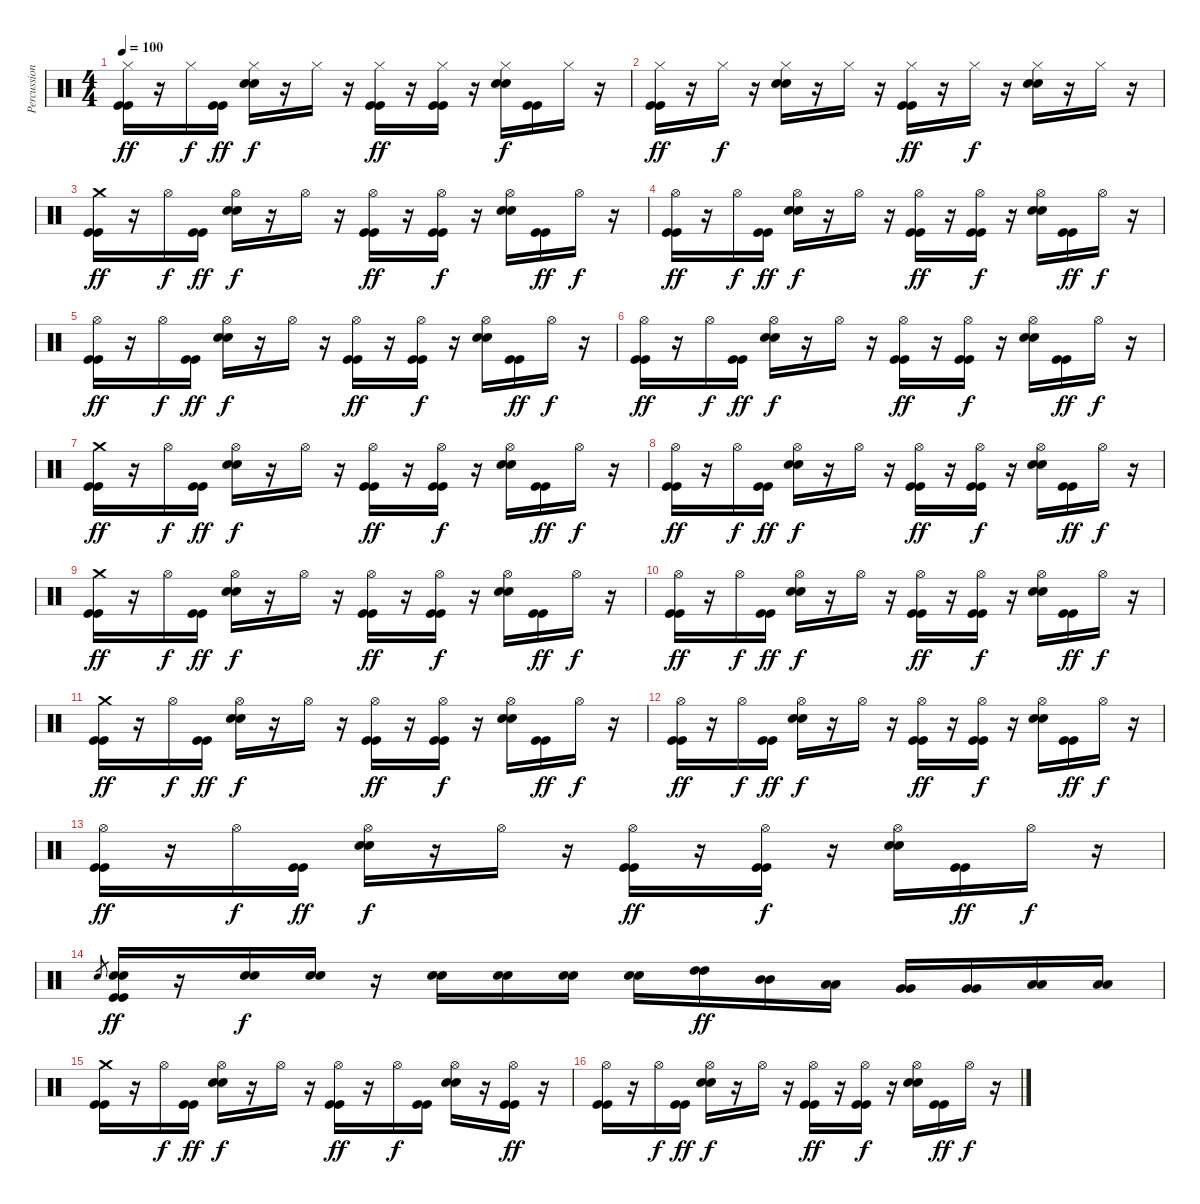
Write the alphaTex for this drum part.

\track ("Percussions" "Percussion") {instrument percussion}
\staff
\articulation defaults
\ts (4 4)
\tempo 100
\clef neutral
\ks c
("Hi-Hat (closed)" "Kick (hit)" "Kick (hit)").16{dy ff} r.16 "Hi-Hat (closed)".16{dy f} ("Kick (hit)" "Kick (hit)").16{dy ff} ("Hi-Hat (closed)" "Electric Snare (hit)" "Electric Snare (hit)").16{dy f} r.16 "Hi-Hat (closed)".16 r.16 ("Hi-Hat (closed)" "Kick (hit)" "Kick (hit)").16{dy ff} r.16 ("Hi-Hat (closed)" "Kick (hit)" "Kick (hit)").16 r.16 ("Hi-Hat (closed)" "Electric Snare (hit)" "Electric Snare (hit)").16{dy f} ("Kick (hit)" "Kick (hit)").16 "Hi-Hat (closed)".16 r.16 |
("Hi-Hat (closed)" "Kick (hit)" "Kick (hit)").16{dy ff} r.16 "Hi-Hat (closed)".16{dy f} r.16 ("Hi-Hat (closed)" "Electric Snare (hit)" "Electric Snare (hit)").16 r.16 "Hi-Hat (closed)".16 r.16 ("Hi-Hat (closed)" "Kick (hit)" "Kick (hit)").16{dy ff} r.16 "Hi-Hat (closed)".16{dy f} r.16 ("Hi-Hat (closed)" "Electric Snare (hit)" "Electric Snare (hit)").16 r.16 "Hi-Hat (closed)".16 r.16 |
("Crash medium (hit)" "Kick (hit)" "Kick (hit)").16{dy ff} r.16 "Hi-Hat (open)".16{dy f} ("Kick (hit)" "Kick (hit)").16{dy ff} ("Hi-Hat (open)" "Electric Snare (hit)" "Electric Snare (hit)").16{dy f} r.16 "Hi-Hat (open)".16 r.16 ("Hi-Hat (open)" "Kick (hit)" "Kick (hit)").16{dy ff} r.16 ("Hi-Hat (open)" "Kick (hit)" "Kick (hit)").16{dy f} r.16 ("Hi-Hat (open)" "Electric Snare (hit)" "Electric Snare (hit)").16 ("Kick (hit)" "Kick (hit)").16{dy ff} "Hi-Hat (open)".16{dy f} r.16 |
("Hi-Hat (open)" "Kick (hit)" "Kick (hit)").16{dy ff} r.16 "Hi-Hat (open)".16{dy f} ("Kick (hit)" "Kick (hit)").16{dy ff} ("Hi-Hat (open)" "Electric Snare (hit)" "Electric Snare (hit)").16{dy f} r.16 "Hi-Hat (open)".16 r.16 ("Hi-Hat (open)" "Kick (hit)" "Kick (hit)").16{dy ff} r.16 ("Hi-Hat (open)" "Kick (hit)" "Kick (hit)").16{dy f} r.16 ("Hi-Hat (open)" "Electric Snare (hit)" "Electric Snare (hit)").16 ("Kick (hit)" "Kick (hit)").16{dy ff} "Hi-Hat (open)".16{dy f} r.16 |
("Hi-Hat (open)" "Kick (hit)" "Kick (hit)").16{dy ff} r.16 "Hi-Hat (open)".16{dy f} ("Kick (hit)" "Kick (hit)").16{dy ff} ("Hi-Hat (open)" "Electric Snare (hit)" "Electric Snare (hit)").16{dy f} r.16 "Hi-Hat (open)".16 r.16 ("Hi-Hat (open)" "Kick (hit)" "Kick (hit)").16{dy ff} r.16 ("Hi-Hat (open)" "Kick (hit)" "Kick (hit)").16{dy f} r.16 ("Hi-Hat (open)" "Electric Snare (hit)" "Electric Snare (hit)").16 ("Kick (hit)" "Kick (hit)").16{dy ff} "Hi-Hat (open)".16{dy f} r.16 |
("Hi-Hat (open)" "Kick (hit)" "Kick (hit)").16{dy ff} r.16 "Hi-Hat (open)".16{dy f} ("Kick (hit)" "Kick (hit)").16{dy ff} ("Hi-Hat (open)" "Electric Snare (hit)" "Electric Snare (hit)").16{dy f} r.16 "Hi-Hat (open)".16 r.16 ("Hi-Hat (open)" "Kick (hit)" "Kick (hit)").16{dy ff} r.16 ("Hi-Hat (open)" "Kick (hit)" "Kick (hit)").16{dy f} r.16 ("Hi-Hat (open)" "Electric Snare (hit)" "Electric Snare (hit)").16 ("Kick (hit)" "Kick (hit)").16{dy ff} "Hi-Hat (open)".16{dy f} r.16 |
("Crash medium (hit)" "Kick (hit)" "Kick (hit)").16{dy ff} r.16 "Hi-Hat (open)".16{dy f} ("Kick (hit)" "Kick (hit)").16{dy ff} ("Hi-Hat (open)" "Electric Snare (hit)" "Electric Snare (hit)").16{dy f} r.16 "Hi-Hat (open)".16 r.16 ("Hi-Hat (open)" "Kick (hit)" "Kick (hit)").16{dy ff} r.16 ("Hi-Hat (open)" "Kick (hit)" "Kick (hit)").16{dy f} r.16 ("Hi-Hat (open)" "Electric Snare (hit)" "Electric Snare (hit)").16 ("Kick (hit)" "Kick (hit)").16{dy ff} "Hi-Hat (open)".16{dy f} r.16 |
("Hi-Hat (open)" "Kick (hit)" "Kick (hit)").16{dy ff} r.16 "Hi-Hat (open)".16{dy f} ("Kick (hit)" "Kick (hit)").16{dy ff} ("Hi-Hat (open)" "Electric Snare (hit)" "Electric Snare (hit)").16{dy f} r.16 "Hi-Hat (open)".16 r.16 ("Hi-Hat (open)" "Kick (hit)" "Kick (hit)").16{dy ff} r.16 ("Hi-Hat (open)" "Kick (hit)" "Kick (hit)").16{dy f} r.16 ("Hi-Hat (open)" "Electric Snare (hit)" "Electric Snare (hit)").16 ("Kick (hit)" "Kick (hit)").16{dy ff} "Hi-Hat (open)".16{dy f} r.16 |
("Crash medium (hit)" "Kick (hit)" "Kick (hit)").16{dy ff} r.16 "Hi-Hat (open)".16{dy f} ("Kick (hit)" "Kick (hit)").16{dy ff} ("Hi-Hat (open)" "Electric Snare (hit)" "Electric Snare (hit)").16{dy f} r.16 "Hi-Hat (open)".16 r.16 ("Hi-Hat (open)" "Kick (hit)" "Kick (hit)").16{dy ff} r.16 ("Hi-Hat (open)" "Kick (hit)" "Kick (hit)").16{dy f} r.16 ("Hi-Hat (open)" "Electric Snare (hit)" "Electric Snare (hit)").16 ("Kick (hit)" "Kick (hit)").16{dy ff} "Hi-Hat (open)".16{dy f} r.16 |
("Hi-Hat (open)" "Kick (hit)" "Kick (hit)").16{dy ff} r.16 "Hi-Hat (open)".16{dy f} ("Kick (hit)" "Kick (hit)").16{dy ff} ("Hi-Hat (open)" "Electric Snare (hit)" "Electric Snare (hit)").16{dy f} r.16 "Hi-Hat (open)".16 r.16 ("Hi-Hat (open)" "Kick (hit)" "Kick (hit)").16{dy ff} r.16 ("Hi-Hat (open)" "Kick (hit)" "Kick (hit)").16{dy f} r.16 ("Hi-Hat (open)" "Electric Snare (hit)" "Electric Snare (hit)").16 ("Kick (hit)" "Kick (hit)").16{dy ff} "Hi-Hat (open)".16{dy f} r.16 |
("Crash medium (hit)" "Kick (hit)" "Kick (hit)").16{dy ff} r.16 "Hi-Hat (open)".16{dy f} ("Kick (hit)" "Kick (hit)").16{dy ff} ("Hi-Hat (open)" "Electric Snare (hit)" "Electric Snare (hit)").16{dy f} r.16 "Hi-Hat (open)".16 r.16 ("Hi-Hat (open)" "Kick (hit)" "Kick (hit)").16{dy ff} r.16 ("Hi-Hat (open)" "Kick (hit)" "Kick (hit)").16{dy f} r.16 ("Hi-Hat (open)" "Electric Snare (hit)" "Electric Snare (hit)").16 ("Kick (hit)" "Kick (hit)").16{dy ff} "Hi-Hat (open)".16{dy f} r.16 |
("Hi-Hat (open)" "Kick (hit)" "Kick (hit)").16{dy ff} r.16 "Hi-Hat (open)".16{dy f} ("Kick (hit)" "Kick (hit)").16{dy ff} ("Hi-Hat (open)" "Electric Snare (hit)" "Electric Snare (hit)").16{dy f} r.16 "Hi-Hat (open)".16 r.16 ("Hi-Hat (open)" "Kick (hit)" "Kick (hit)").16{dy ff} r.16 ("Hi-Hat (open)" "Kick (hit)" "Kick (hit)").16{dy f} r.16 ("Hi-Hat (open)" "Electric Snare (hit)" "Electric Snare (hit)").16 ("Kick (hit)" "Kick (hit)").16{dy ff} "Hi-Hat (open)".16{dy f} r.16 |
("Hi-Hat (open)" "Kick (hit)" "Kick (hit)").16{dy ff} r.16 "Hi-Hat (open)".16{dy f} ("Kick (hit)" "Kick (hit)").16{dy ff} ("Hi-Hat (open)" "Electric Snare (hit)" "Electric Snare (hit)").16{dy f} r.16 "Hi-Hat (open)".16 r.16 ("Hi-Hat (open)" "Kick (hit)" "Kick (hit)").16{dy ff} r.16 ("Hi-Hat (open)" "Kick (hit)" "Kick (hit)").16{dy f} r.16 ("Hi-Hat (open)" "Electric Snare (hit)" "Electric Snare (hit)").16 ("Kick (hit)" "Kick (hit)").16{dy ff} "Hi-Hat (open)".16{dy f} r.16 |
"Electric Snare (hit)".8{gr} ("Electric Snare (hit)" "Electric Snare (hit)" "Kick (hit)" "Kick (hit)").16{dy ff} r.16 ("Electric Snare (hit)" "Electric Snare (hit)").16{dy f} ("Electric Snare (hit)" "Electric Snare (hit)").16 r.16 ("Electric Snare (hit)" "Electric Snare (hit)").16 ("Electric Snare (hit)" "Electric Snare (hit)").16 ("Electric Snare (hit)" "Electric Snare (hit)").16 ("Electric Snare (hit)" "Electric Snare (hit)").16 ("High Tom (hit)" "High Tom (hit)").16{dy ff} ("Mid Tom (hit)" "Mid Tom (hit)").16 ("Low Tom (hit)" "Low Tom (hit)").16 ("Very Low Tom (hit)" "Very Low Tom (hit)").16 ("Very Low Tom (hit)" "Very Low Tom (hit)").16 ("Low Floor Tom (hit)" "Low Floor Tom (hit)").16 ("Low Floor Tom (hit)" "Low Floor Tom (hit)").16 |
("Crash medium (hit)" "Kick (hit)" "Kick (hit)").16 r.16 "Hi-Hat (open)".16{dy f} ("Kick (hit)" "Kick (hit)").16{dy ff} ("Hi-Hat (open)" "Electric Snare (hit)" "Electric Snare (hit)").16{dy f} r.16 "Hi-Hat (open)".16 r.16 ("Hi-Hat (open)" "Kick (hit)" "Kick (hit)").16{dy ff} r.16 "Hi-Hat (open)".16{dy f} ("Kick (hit)" "Kick (hit)").16 ("Hi-Hat (open)" "Electric Snare (hit)" "Electric Snare (hit)").16 r.16 ("Hi-Hat (open)" "Kick (hit)" "Kick (hit)").16{dy ff} r.16 |
("Hi-Hat (open)" "Kick (hit)" "Kick (hit)").16 r.16 "Hi-Hat (open)".16{dy f} ("Kick (hit)" "Kick (hit)").16{dy ff} ("Hi-Hat (open)" "Electric Snare (hit)" "Electric Snare (hit)").16{dy f} r.16 "Hi-Hat (open)".16 r.16 ("Hi-Hat (open)" "Kick (hit)" "Kick (hit)").16{dy ff} r.16 ("Hi-Hat (open)" "Kick (hit)" "Kick (hit)").16{dy f} r.16 ("Hi-Hat (open)" "Electric Snare (hit)" "Electric Snare (hit)").16 ("Kick (hit)" "Kick (hit)").16{dy ff} "Hi-Hat (open)".16{dy f} r.16
